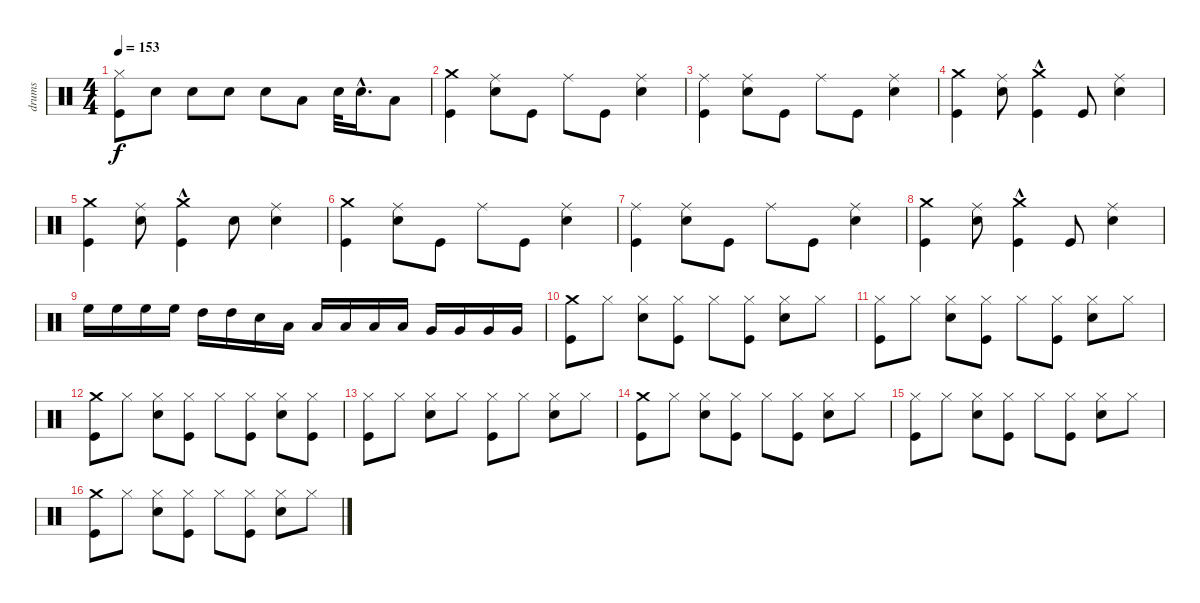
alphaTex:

\track ("drums" "drums") {instrument percussion}
\staff {score}
\articulation defaults
\ts (4 4)
\tempo 153
\clef neutral
\ks c
("Hi-Hat (closed)" "Kick (hit)").8{dy f} "Snare (hit) 2".8 "Snare (hit) 2".8 "Snare (hit) 2".8 "Snare (hit) 2".8 "Low Tom (hit)".8 "Snare (hit) 2".32 "Snare (hit) 2"{hac}.16{d} "Low Tom (hit)".8 |
("Crash medium (hit)" "Kick (hit)").4 ("Ride (middle)" "Snare (hit) 2").8 "Kick (hit)".8 "Ride (middle)".8 "Kick (hit)".8 ("Ride (middle)" "Snare (hit) 2").4 |
("Kick (hit)" "Ride (middle)").4 ("Ride (middle)" "Snare (hit) 2").8 "Kick (hit)".8 "Ride (middle)".8 "Kick (hit)".8 ("Ride (middle)" "Snare (hit) 2").4 |
("Kick (hit)" "Crash medium (hit)").4 ("Ride (middle)" "Snare (hit) 2").8 ("Crash medium (hit)"{hac} "Kick (hit)").4 "Kick (hit)".8 ("Ride (middle)" "Snare (hit) 2").4 |
("Kick (hit)" "Crash medium (hit)").4 ("Ride (middle)" "Snare (hit) 2").8 ("Crash medium (hit)"{hac} "Kick (hit)").4 "Snare (hit) 2".8 ("Ride (middle)" "Snare (hit) 2").4 |
("Crash medium (hit)" "Kick (hit)").4 ("Ride (middle)" "Snare (hit) 2").8 "Kick (hit)".8 "Ride (middle)".8 "Kick (hit)".8 ("Ride (middle)" "Snare (hit) 2").4 |
("Kick (hit)" "Ride (middle)").4 ("Ride (middle)" "Snare (hit) 2").8 "Kick (hit)".8 "Ride (middle)".8 "Kick (hit)".8 ("Ride (middle)" "Snare (hit) 2").4 |
("Kick (hit)" "Crash medium (hit)").4 ("Ride (middle)" "Snare (hit) 2").8 ("Crash medium (hit)"{hac} "Kick (hit)").4 "Kick (hit)".8 ("Ride (middle)" "Snare (hit) 2").4 |
"High Floor Tom (hit)".16 "High Floor Tom (hit)".16 "High Floor Tom (hit)".16 "High Floor Tom (hit)".16 "High Tom (hit)".16 "High Tom (hit)".16 "Snare (hit) 2".16 "Low Tom (hit)".16 "Low Tom (hit)".16 "Low Tom (hit)".16 "Low Tom (hit)".16 "Low Tom (hit)".16 "Very Low Tom (hit)".16 "Very Low Tom (hit)".16 "Very Low Tom (hit)".16 "Very Low Tom (hit)".16 |
("Kick (hit)" "Crash medium (hit)").8 "Hi-Hat (closed)".8 ("Snare (hit) 2" "Hi-Hat (closed)").8 ("Kick (hit)" "Hi-Hat (closed)").8 "Hi-Hat (closed)".8 ("Kick (hit)" "Hi-Hat (closed)").8 ("Snare (hit) 2" "Hi-Hat (closed)").8 "Hi-Hat (closed)".8 |
("Kick (hit)" "Hi-Hat (closed)").8 "Hi-Hat (closed)".8 ("Snare (hit) 2" "Hi-Hat (closed)").8 ("Kick (hit)" "Hi-Hat (closed)").8 "Hi-Hat (closed)".8 ("Kick (hit)" "Hi-Hat (closed)").8 ("Snare (hit) 2" "Hi-Hat (closed)").8 "Hi-Hat (closed)".8 |
("Kick (hit)" "Crash medium (hit)").8 "Hi-Hat (closed)".8 ("Snare (hit) 2" "Hi-Hat (closed)").8 ("Kick (hit)" "Hi-Hat (closed)").8 "Hi-Hat (closed)".8 ("Kick (hit)" "Hi-Hat (closed)").8 ("Snare (hit) 2" "Hi-Hat (closed)").8 ("Kick (hit)" "Hi-Hat (closed)").8 |
("Hi-Hat (closed)" "Kick (hit)").8 "Hi-Hat (closed)".8 ("Snare (hit) 2" "Hi-Hat (closed)").8 "Hi-Hat (closed)".8 ("Hi-Hat (closed)" "Kick (hit)").8 "Hi-Hat (closed)".8 ("Hi-Hat (closed)" "Snare (hit) 2").8 "Hi-Hat (closed)".8 |
("Kick (hit)" "Crash medium (hit)").8 "Hi-Hat (closed)".8 ("Snare (hit) 2" "Hi-Hat (closed)").8 ("Kick (hit)" "Hi-Hat (closed)").8 "Hi-Hat (closed)".8 ("Kick (hit)" "Hi-Hat (closed)").8 ("Snare (hit) 2" "Hi-Hat (closed)").8 "Hi-Hat (closed)".8 |
("Kick (hit)" "Hi-Hat (closed)").8 "Hi-Hat (closed)".8 ("Snare (hit) 2" "Hi-Hat (closed)").8 ("Kick (hit)" "Hi-Hat (closed)").8 "Hi-Hat (closed)".8 ("Kick (hit)" "Hi-Hat (closed)").8 ("Snare (hit) 2" "Hi-Hat (closed)").8 "Hi-Hat (closed)".8 |
("Kick (hit)" "Crash medium (hit)").8 "Hi-Hat (closed)".8 ("Snare (hit) 2" "Hi-Hat (closed)").8 ("Kick (hit)" "Hi-Hat (closed)").8 "Hi-Hat (closed)".8 ("Kick (hit)" "Hi-Hat (closed)").8 ("Snare (hit) 2" "Hi-Hat (closed)").8 "Hi-Hat (closed)".8
